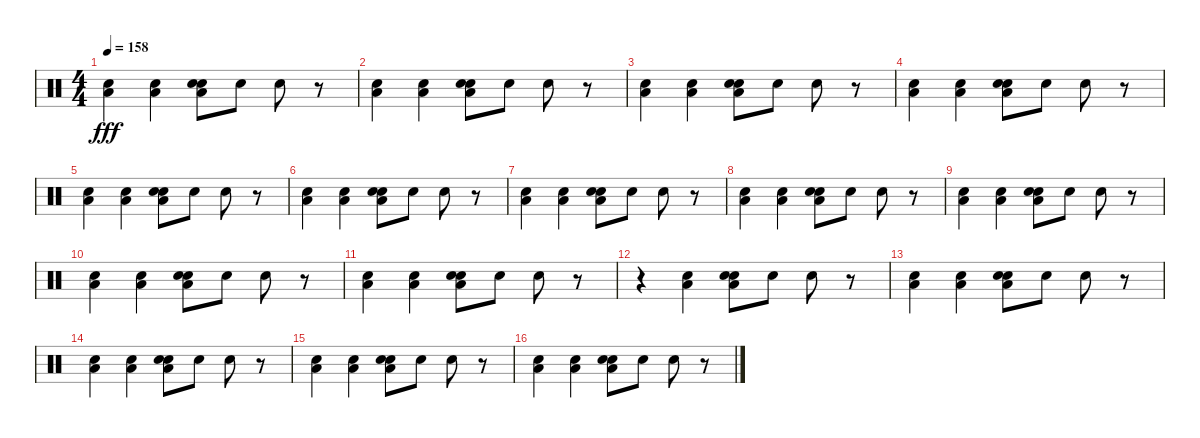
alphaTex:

\track "" {instrument percussion}
\staff {score}
\articulation defaults
\ts (4 4)
\tempo 158
\clef neutral
\ks c
("Low Floor Tom (hit)" "Electric Snare (hit)").4{dy fff} ("Low Floor Tom (hit)" "Electric Snare (hit)").4 ("Electric Snare (hit)" "Low Floor Tom (hit)" "Electric Snare (hit)").8 "Electric Snare (hit)".8 "Electric Snare (hit)".8 r.8 |
("Low Floor Tom (hit)" "Electric Snare (hit)").4 ("Low Floor Tom (hit)" "Electric Snare (hit)").4 ("Electric Snare (hit)" "Low Floor Tom (hit)" "Electric Snare (hit)").8 "Electric Snare (hit)".8 "Electric Snare (hit)".8 r.8 |
("Low Floor Tom (hit)" "Electric Snare (hit)").4 ("Low Floor Tom (hit)" "Electric Snare (hit)").4 ("Electric Snare (hit)" "Low Floor Tom (hit)" "Electric Snare (hit)").8 "Electric Snare (hit)".8 "Electric Snare (hit)".8 r.8 |
("Low Floor Tom (hit)" "Electric Snare (hit)").4 ("Low Floor Tom (hit)" "Electric Snare (hit)").4 ("Electric Snare (hit)" "Low Floor Tom (hit)" "Electric Snare (hit)").8 "Electric Snare (hit)".8 "Electric Snare (hit)".8 r.8 |
("Low Floor Tom (hit)" "Electric Snare (hit)").4 ("Low Floor Tom (hit)" "Electric Snare (hit)").4 ("Electric Snare (hit)" "Low Floor Tom (hit)" "Electric Snare (hit)").8 "Electric Snare (hit)".8 "Electric Snare (hit)".8 r.8 |
("Low Floor Tom (hit)" "Electric Snare (hit)").4 ("Low Floor Tom (hit)" "Electric Snare (hit)").4 ("Electric Snare (hit)" "Low Floor Tom (hit)" "Electric Snare (hit)").8 "Electric Snare (hit)".8 "Electric Snare (hit)".8 r.8 |
("Low Floor Tom (hit)" "Electric Snare (hit)").4 ("Low Floor Tom (hit)" "Electric Snare (hit)").4 ("Electric Snare (hit)" "Low Floor Tom (hit)" "Electric Snare (hit)").8 "Electric Snare (hit)".8 "Electric Snare (hit)".8 r.8 |
("Low Floor Tom (hit)" "Electric Snare (hit)").4 ("Low Floor Tom (hit)" "Electric Snare (hit)").4 ("Electric Snare (hit)" "Low Floor Tom (hit)" "Electric Snare (hit)").8 "Electric Snare (hit)".8 "Electric Snare (hit)".8 r.8 |
("Low Floor Tom (hit)" "Electric Snare (hit)").4 ("Low Floor Tom (hit)" "Electric Snare (hit)").4 ("Electric Snare (hit)" "Low Floor Tom (hit)" "Electric Snare (hit)").8 "Electric Snare (hit)".8 "Electric Snare (hit)".8 r.8 |
("Low Floor Tom (hit)" "Electric Snare (hit)").4 ("Low Floor Tom (hit)" "Electric Snare (hit)").4 ("Electric Snare (hit)" "Low Floor Tom (hit)" "Electric Snare (hit)").8 "Electric Snare (hit)".8 "Electric Snare (hit)".8 r.8 |
("Low Floor Tom (hit)" "Electric Snare (hit)").4 ("Low Floor Tom (hit)" "Electric Snare (hit)").4 ("Electric Snare (hit)" "Low Floor Tom (hit)" "Electric Snare (hit)").8 "Electric Snare (hit)".8 "Electric Snare (hit)".8 r.8 |
r.4 ("Low Floor Tom (hit)" "Snare (hit) 2").4 ("Electric Snare (hit)" "Low Floor Tom (hit)" "Snare (hit) 2").8 "Electric Snare (hit)".8 "Electric Snare (hit)".8 r.8 |
("Low Floor Tom (hit)" "Electric Snare (hit)").4 ("Low Floor Tom (hit)" "Electric Snare (hit)").4 ("Electric Snare (hit)" "Low Floor Tom (hit)" "Electric Snare (hit)").8 "Electric Snare (hit)".8 "Electric Snare (hit)".8 r.8 |
("Low Floor Tom (hit)" "Electric Snare (hit)").4 ("Low Floor Tom (hit)" "Electric Snare (hit)").4 ("Electric Snare (hit)" "Low Floor Tom (hit)" "Electric Snare (hit)").8 "Electric Snare (hit)".8 "Electric Snare (hit)".8 r.8 |
("Low Floor Tom (hit)" "Electric Snare (hit)").4 ("Low Floor Tom (hit)" "Electric Snare (hit)").4 ("Electric Snare (hit)" "Low Floor Tom (hit)" "Electric Snare (hit)").8 "Electric Snare (hit)".8 "Electric Snare (hit)".8 r.8 |
("Low Floor Tom (hit)" "Electric Snare (hit)").4 ("Low Floor Tom (hit)" "Electric Snare (hit)").4 ("Electric Snare (hit)" "Low Floor Tom (hit)" "Electric Snare (hit)").8 "Electric Snare (hit)".8 "Electric Snare (hit)".8 r.8
